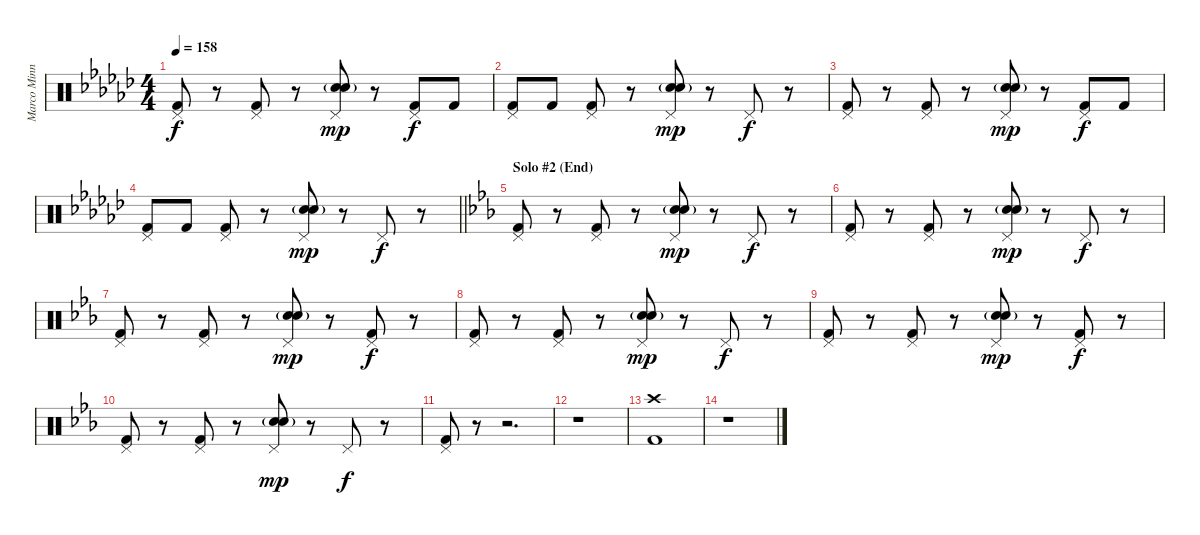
\track ("Marco Minnemann (Drums)" "Marco Minn") {instrument percussion}
\staff {score}
\articulation defaults
\ts (4 4)
\tempo 158
\clef neutral
\ks gb
("Pedal Hi-Hat (hit)" "Kick (hit) 2").8{dy f} r.8 ("Pedal Hi-Hat (hit)" "Kick (hit) 2").8 r.8 ("Pedal Hi-Hat (hit)" "Snare (hit) 2"{g} "Electric Snare (hit)").8{dy mp} r.8 ("Pedal Hi-Hat (hit)" "Kick (hit) 2").8{dy f} "Kick (hit) 2".8 |
("Pedal Hi-Hat (hit)" "Kick (hit) 2").8 "Kick (hit) 2".8 ("Pedal Hi-Hat (hit)" "Kick (hit) 2").8 r.8 ("Pedal Hi-Hat (hit)" "Snare (hit) 2"{g} "Electric Snare (hit)").8{dy mp} r.8 "Pedal Hi-Hat (hit)".8{dy f} r.8 |
("Pedal Hi-Hat (hit)" "Kick (hit) 2").8 r.8 ("Pedal Hi-Hat (hit)" "Kick (hit) 2").8 r.8 ("Pedal Hi-Hat (hit)" "Snare (hit) 2"{g} "Electric Snare (hit)").8{dy mp} r.8 ("Pedal Hi-Hat (hit)" "Kick (hit) 2").8{dy f} "Kick (hit) 2".8 |
\barLineRight lightlight
("Pedal Hi-Hat (hit)" "Kick (hit) 2").8 "Kick (hit) 2".8 ("Pedal Hi-Hat (hit)" "Kick (hit) 2").8 r.8 ("Pedal Hi-Hat (hit)" "Snare (hit) 2"{g} "Electric Snare (hit)").8{dy mp} r.8 "Pedal Hi-Hat (hit)".8{dy f} r.8 |
\section ("" "Solo #2 (End)")
\ks eb
("Pedal Hi-Hat (hit)" "Kick (hit) 2").8 r.8 ("Pedal Hi-Hat (hit)" "Kick (hit) 2").8 r.8 ("Pedal Hi-Hat (hit)" "Snare (hit) 2"{g} "Electric Snare (hit)").8{dy mp} r.8 "Pedal Hi-Hat (hit)".8{dy f} r.8 |
("Pedal Hi-Hat (hit)" "Kick (hit) 2").8 r.8 ("Pedal Hi-Hat (hit)" "Kick (hit) 2").8 r.8 ("Pedal Hi-Hat (hit)" "Snare (hit) 2"{g} "Electric Snare (hit)").8{dy mp} r.8 "Pedal Hi-Hat (hit)".8{dy f} r.8 |
("Pedal Hi-Hat (hit)" "Kick (hit) 2").8 r.8 ("Pedal Hi-Hat (hit)" "Kick (hit) 2").8 r.8 ("Pedal Hi-Hat (hit)" "Snare (hit) 2"{g} "Electric Snare (hit)").8{dy mp} r.8 ("Pedal Hi-Hat (hit)" "Kick (hit) 2").8{dy f} r.8 |
("Pedal Hi-Hat (hit)" "Kick (hit) 2").8 r.8 ("Pedal Hi-Hat (hit)" "Kick (hit) 2").8 r.8 ("Pedal Hi-Hat (hit)" "Snare (hit) 2"{g} "Electric Snare (hit)").8{dy mp} r.8 "Pedal Hi-Hat (hit)".8{dy f} r.8 |
("Pedal Hi-Hat (hit)" "Kick (hit) 2").8 r.8 ("Pedal Hi-Hat (hit)" "Kick (hit) 2").8 r.8 ("Pedal Hi-Hat (hit)" "Snare (hit) 2"{g} "Electric Snare (hit)").8{dy mp} r.8 ("Pedal Hi-Hat (hit)" "Kick (hit) 2").8{dy f} r.8 |
("Pedal Hi-Hat (hit)" "Kick (hit) 2").8 r.8 ("Pedal Hi-Hat (hit)" "Kick (hit) 2").8 r.8 ("Pedal Hi-Hat (hit)" "Snare (hit) 2"{g} "Electric Snare (hit)").8{dy mp} r.8 "Pedal Hi-Hat (hit)".8{dy f} r.8 |
("Pedal Hi-Hat (hit)" "Kick (hit) 2").8 r.8 r.2{d} |
r.1 |
("Crash high (hit)" "Kick (hit) 2").1 |
r.1
